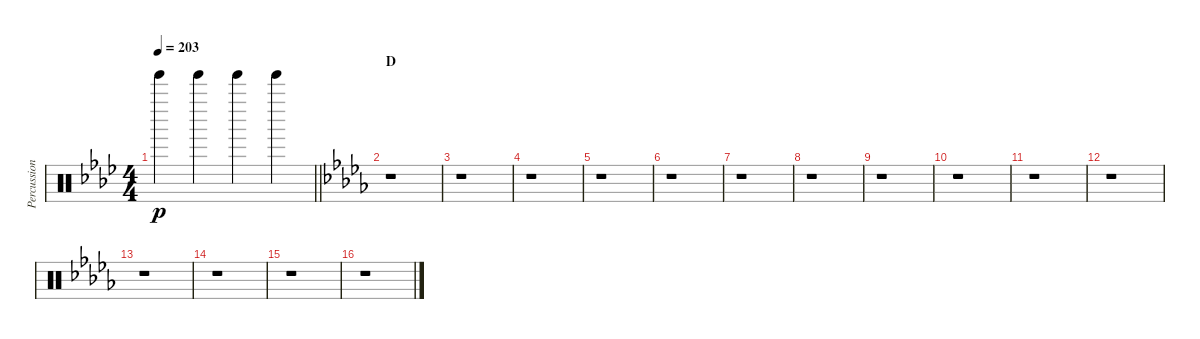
\track ("Percussion" "Percussion") {instrument percussion}
\staff {score}
\articulation defaults
\ts (4 4)
\tempo 203
\clef neutral
\barLineRight lightlight
\ks ab "Tinkle Bell (hit)".4{dy p} "Tinkle Bell (hit)".4 "Tinkle Bell (hit)".4 "Tinkle Bell (hit)".4
|
\section ("" "D")
\ks db
r.1 |
r.1 |
r.1 |
r.1 |
r.1 |
r.1 |
r.1 |
r.1 |
r.1 |
r.1 |
r.1 |
r.1 |
r.1 |
r.1 |
r.1
